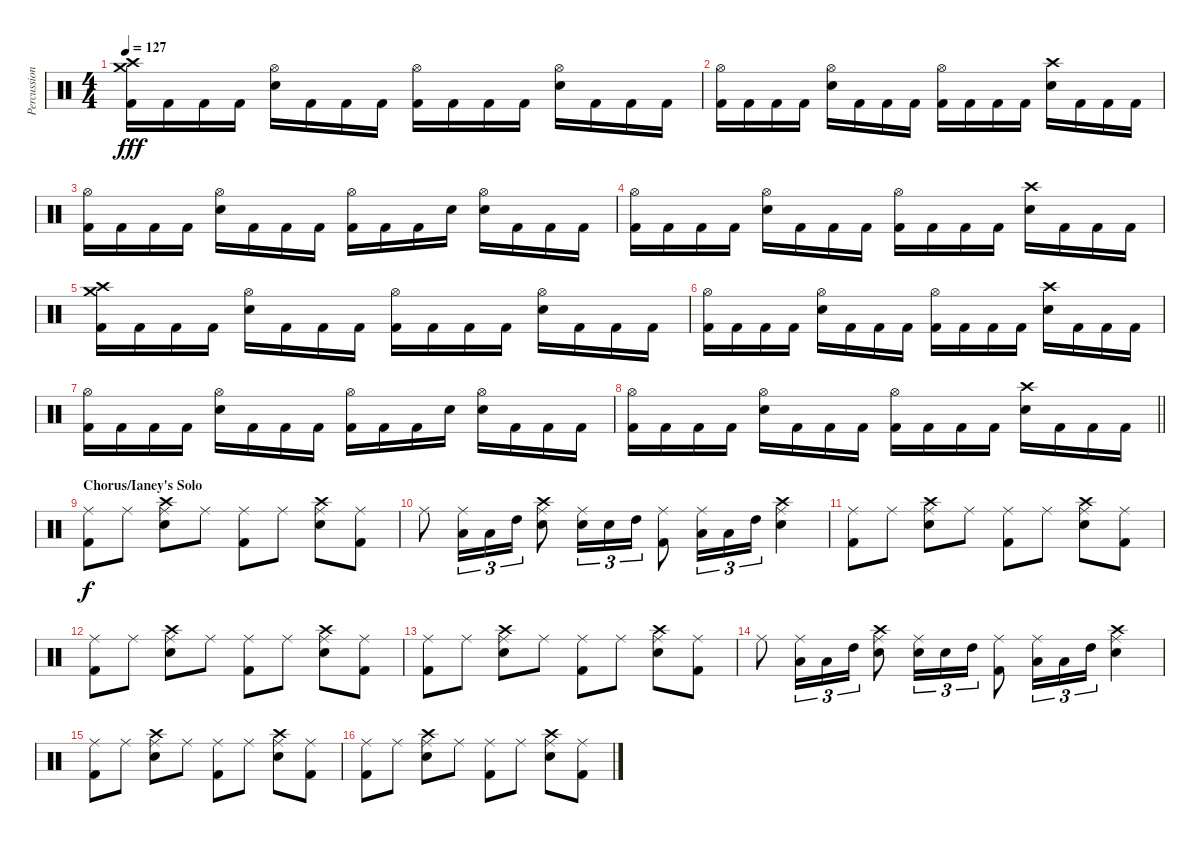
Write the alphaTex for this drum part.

\track ("Percussion" "Percussion") {instrument percussion}
\staff {score}
\articulation defaults
\ts (4 4)
\tempo 127
\clef neutral
\ks c
("Crash high (hit)" "Crash medium (hit)" "Kick (hit) 2").16{dy fff} "Kick (hit) 2".16 "Kick (hit) 2".16 "Kick (hit) 2".16 ("Hi-Hat (open)" "Snare (hit) 2").16 "Kick (hit) 2".16 "Kick (hit) 2".16 "Kick (hit) 2".16 ("Hi-Hat (open)" "Kick (hit) 2").16 "Kick (hit) 2".16 "Kick (hit) 2".16 "Kick (hit) 2".16 ("Hi-Hat (open)" "Snare (hit) 2").16 "Kick (hit) 2".16 "Kick (hit) 2".16 "Kick (hit) 2".16 |
("Hi-Hat (open)" "Kick (hit) 2").16 "Kick (hit) 2".16 "Kick (hit) 2".16 "Kick (hit) 2".16 ("Hi-Hat (open)" "Snare (hit) 2").16 "Kick (hit) 2".16 "Kick (hit) 2".16 "Kick (hit) 2".16 ("Hi-Hat (open)" "Kick (hit) 2").16 "Kick (hit) 2".16 "Kick (hit) 2".16 "Kick (hit) 2".16 ("Crash high (hit)" "Snare (hit) 2").16 "Kick (hit) 2".16 "Kick (hit) 2".16 "Kick (hit) 2".16 |
("Hi-Hat (open)" "Kick (hit) 2").16 "Kick (hit) 2".16 "Kick (hit) 2".16 "Kick (hit) 2".16 ("Hi-Hat (open)" "Snare (hit) 2").16 "Kick (hit) 2".16 "Kick (hit) 2".16 "Kick (hit) 2".16 ("Hi-Hat (open)" "Kick (hit) 2").16 "Kick (hit) 2".16 "Kick (hit) 2".16 "Snare (hit) 2".16 ("Hi-Hat (open)" "Snare (hit) 2").16 "Kick (hit) 2".16 "Kick (hit) 2".16 "Kick (hit) 2".16 |
("Hi-Hat (open)" "Kick (hit) 2").16 "Kick (hit) 2".16 "Kick (hit) 2".16 "Kick (hit) 2".16 ("Hi-Hat (open)" "Snare (hit) 2").16 "Kick (hit) 2".16 "Kick (hit) 2".16 "Kick (hit) 2".16 ("Hi-Hat (open)" "Kick (hit) 2").16 "Kick (hit) 2".16 "Kick (hit) 2".16 "Kick (hit) 2".16 ("Crash high (hit)" "Snare (hit) 2").16 "Kick (hit) 2".16 "Kick (hit) 2".16 "Kick (hit) 2".16 |
("Crash high (hit)" "Crash medium (hit)" "Kick (hit) 2").16 "Kick (hit) 2".16 "Kick (hit) 2".16 "Kick (hit) 2".16 ("Hi-Hat (open)" "Snare (hit) 2").16 "Kick (hit) 2".16 "Kick (hit) 2".16 "Kick (hit) 2".16 ("Hi-Hat (open)" "Kick (hit) 2").16 "Kick (hit) 2".16 "Kick (hit) 2".16 "Kick (hit) 2".16 ("Hi-Hat (open)" "Snare (hit) 2").16 "Kick (hit) 2".16 "Kick (hit) 2".16 "Kick (hit) 2".16 |
("Hi-Hat (open)" "Kick (hit) 2").16 "Kick (hit) 2".16 "Kick (hit) 2".16 "Kick (hit) 2".16 ("Hi-Hat (open)" "Snare (hit) 2").16 "Kick (hit) 2".16 "Kick (hit) 2".16 "Kick (hit) 2".16 ("Hi-Hat (open)" "Kick (hit) 2").16 "Kick (hit) 2".16 "Kick (hit) 2".16 "Kick (hit) 2".16 ("Crash high (hit)" "Snare (hit) 2").16 "Kick (hit) 2".16 "Kick (hit) 2".16 "Kick (hit) 2".16 |
("Hi-Hat (open)" "Kick (hit) 2").16 "Kick (hit) 2".16 "Kick (hit) 2".16 "Kick (hit) 2".16 ("Hi-Hat (open)" "Snare (hit) 2").16 "Kick (hit) 2".16 "Kick (hit) 2".16 "Kick (hit) 2".16 ("Hi-Hat (open)" "Kick (hit) 2").16 "Kick (hit) 2".16 "Kick (hit) 2".16 "Snare (hit) 2".16 ("Hi-Hat (open)" "Snare (hit) 2").16 "Kick (hit) 2".16 "Kick (hit) 2".16 "Kick (hit) 2".16 |
\barLineRight lightlight
("Hi-Hat (open)" "Kick (hit) 2").16 "Kick (hit) 2".16 "Kick (hit) 2".16 "Kick (hit) 2".16 ("Hi-Hat (open)" "Snare (hit) 2").16 "Kick (hit) 2".16 "Kick (hit) 2".16 "Kick (hit) 2".16 ("Hi-Hat (open)" "Kick (hit) 2").16 "Kick (hit) 2".16 "Kick (hit) 2".16 "Kick (hit) 2".16 ("Crash high (hit)" "Snare (hit) 2").16 "Kick (hit) 2".16 "Kick (hit) 2".16 "Kick (hit) 2".16 |
\section ("" "Chorus/Ianey's Solo")
("Ride (middle)" "Kick (hit) 2").8{dy f} "Ride (middle)".8 ("Crash high (hit)" "Ride (middle)" "Snare (hit) 2").8 "Ride (middle)".8 ("Ride (middle)" "Kick (hit) 2").8 "Ride (middle)".8 ("Crash high (hit)" "Ride (middle)" "Snare (hit) 2").8 ("Ride (middle)" "Kick (hit) 2").8 |
"Ride (middle)".8 ("Ride (middle)" "Low Tom (hit)").16{tu (3 2)} "Low Tom (hit)".16{tu (3 2)} "High Tom (hit)".16{tu (3 2)} ("Crash high (hit)" "Ride (middle)" "Snare (hit) 2").8 ("Ride (middle)" "Snare (hit) 2").16{tu (3 2)} "Snare (hit) 2".16{tu (3 2)} "High Tom (hit)".16{tu (3 2)} ("Ride (middle)" "Kick (hit) 2").8 ("Ride (middle)" "Low Tom (hit)").16{tu (3 2)} "Low Tom (hit)".16{tu (3 2)} "High Tom (hit)".16{tu (3 2)} ("Crash high (hit)" "Ride (middle)" "Snare (hit) 2").4 |
("Ride (middle)" "Kick (hit) 2").8 "Ride (middle)".8 ("Crash high (hit)" "Ride (middle)" "Snare (hit) 2").8 "Ride (middle)".8 ("Ride (middle)" "Kick (hit) 2").8 "Ride (middle)".8 ("Crash high (hit)" "Ride (middle)" "Snare (hit) 2").8 ("Ride (middle)" "Kick (hit) 2").8 |
("Ride (middle)" "Kick (hit) 2").8 "Ride (middle)".8 ("Crash high (hit)" "Ride (middle)" "Snare (hit) 2").8 "Ride (middle)".8 ("Ride (middle)" "Kick (hit) 2").8 "Ride (middle)".8 ("Crash high (hit)" "Ride (middle)" "Snare (hit) 2").8 ("Ride (middle)" "Kick (hit) 2").8 |
("Ride (middle)" "Kick (hit) 2").8 "Ride (middle)".8 ("Crash high (hit)" "Ride (middle)" "Snare (hit) 2").8 "Ride (middle)".8 ("Ride (middle)" "Kick (hit) 2").8 "Ride (middle)".8 ("Crash high (hit)" "Ride (middle)" "Snare (hit) 2").8 ("Ride (middle)" "Kick (hit) 2").8 |
"Ride (middle)".8 ("Ride (middle)" "Low Tom (hit)").16{tu (3 2)} "Low Tom (hit)".16{tu (3 2)} "High Tom (hit)".16{tu (3 2)} ("Crash high (hit)" "Ride (middle)" "Snare (hit) 2").8 ("Ride (middle)" "Snare (hit) 2").16{tu (3 2)} "Snare (hit) 2".16{tu (3 2)} "High Tom (hit)".16{tu (3 2)} ("Ride (middle)" "Kick (hit) 2").8 ("Ride (middle)" "Low Tom (hit)").16{tu (3 2)} "Low Tom (hit)".16{tu (3 2)} "High Tom (hit)".16{tu (3 2)} ("Crash high (hit)" "Ride (middle)" "Snare (hit) 2").4 |
("Ride (middle)" "Kick (hit) 2").8 "Ride (middle)".8 ("Crash high (hit)" "Ride (middle)" "Snare (hit) 2").8 "Ride (middle)".8 ("Ride (middle)" "Kick (hit) 2").8 "Ride (middle)".8 ("Crash high (hit)" "Ride (middle)" "Snare (hit) 2").8 ("Ride (middle)" "Kick (hit) 2").8 |
("Ride (middle)" "Kick (hit) 2").8 "Ride (middle)".8 ("Crash high (hit)" "Ride (middle)" "Snare (hit) 2").8 "Ride (middle)".8 ("Ride (middle)" "Kick (hit) 2").8 "Ride (middle)".8 ("Crash high (hit)" "Ride (middle)" "Snare (hit) 2").8 ("Ride (middle)" "Kick (hit) 2").8
